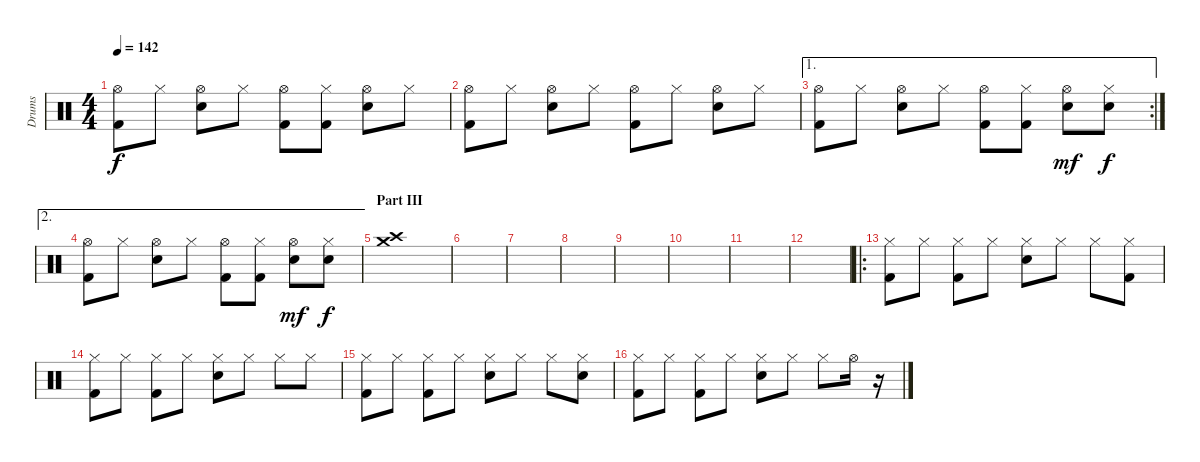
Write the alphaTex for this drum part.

\track ("Drums" "Drums") {instrument percussion}
\staff {score}
\articulation defaults
\ts (4 4)
\tempo 142
\clef neutral
\ks c
("Hi-Hat (open)" "Kick (hit) 2").8{dy f} "Hi-Hat (closed)".8 ("Hi-Hat (open)" "Electric Snare (hit)").8 "Hi-Hat (closed)".8 ("Hi-Hat (open)" "Kick (hit) 2").8 ("Hi-Hat (closed)" "Kick (hit) 2").8 ("Hi-Hat (open)" "Electric Snare (hit)").8 "Hi-Hat (closed)".8 |
("Hi-Hat (open)" "Kick (hit) 2").8 "Hi-Hat (closed)".8 ("Hi-Hat (open)" "Electric Snare (hit)").8 "Hi-Hat (closed)".8 ("Hi-Hat (open)" "Kick (hit) 2").8 "Hi-Hat (closed)".8 ("Hi-Hat (open)" "Electric Snare (hit)").8 "Hi-Hat (closed)".8 |
\ae 1
\rc 2
("Hi-Hat (open)" "Kick (hit) 2").8 "Hi-Hat (closed)".8 ("Hi-Hat (open)" "Electric Snare (hit)").8 "Hi-Hat (closed)".8 ("Hi-Hat (open)" "Kick (hit) 2").8 ("Hi-Hat (closed)" "Kick (hit) 2").8 ("Hi-Hat (open)" "Electric Snare (hit)").8{dy mf} ("Hi-Hat (closed)" "Electric Snare (hit)").8{dy f} |
\ae 2
("Hi-Hat (open)" "Kick (hit) 2").8 "Hi-Hat (closed)".8 ("Hi-Hat (open)" "Electric Snare (hit)").8 "Hi-Hat (closed)".8 ("Hi-Hat (open)" "Kick (hit) 2").8 ("Hi-Hat (closed)" "Kick (hit) 2").8 ("Hi-Hat (open)" "Electric Snare (hit)").8{dy mf} ("Hi-Hat (closed)" "Electric Snare (hit)").8{dy f} |
\section ("" "Part III")
("Crash high (hit)" "Crash medium (hit)").1 |
|
|
|
|
|
|
|
\ro
("Hi-Hat (closed)" "Kick (hit) 2").8 "Hi-Hat (closed)".8 ("Hi-Hat (closed)" "Kick (hit) 2").8 "Hi-Hat (closed)".8 ("Hi-Hat (closed)" "Electric Snare (hit)").8 "Hi-Hat (closed)".8 "Hi-Hat (closed)".8 ("Hi-Hat (closed)" "Kick (hit) 2").8 |
("Hi-Hat (closed)" "Kick (hit) 2").8 "Hi-Hat (closed)".8 ("Hi-Hat (closed)" "Kick (hit) 2").8 "Hi-Hat (closed)".8 ("Hi-Hat (closed)" "Electric Snare (hit)").8 "Hi-Hat (closed)".8 "Hi-Hat (closed)".8 "Hi-Hat (closed)".8 |
("Hi-Hat (closed)" "Kick (hit) 2").8 "Hi-Hat (closed)".8 ("Hi-Hat (closed)" "Kick (hit) 2").8 "Hi-Hat (closed)".8 ("Hi-Hat (closed)" "Electric Snare (hit)").8 "Hi-Hat (closed)".8 "Hi-Hat (closed)".8 ("Hi-Hat (closed)" "Electric Snare (hit)").8 |
("Hi-Hat (closed)" "Kick (hit) 2").8 "Hi-Hat (closed)".8 ("Hi-Hat (closed)" "Kick (hit) 2").8 "Hi-Hat (closed)".8 ("Hi-Hat (closed)" "Electric Snare (hit)").8 "Hi-Hat (closed)".8 "Hi-Hat (closed)".8 "Hi-Hat (open)".16 r.16
